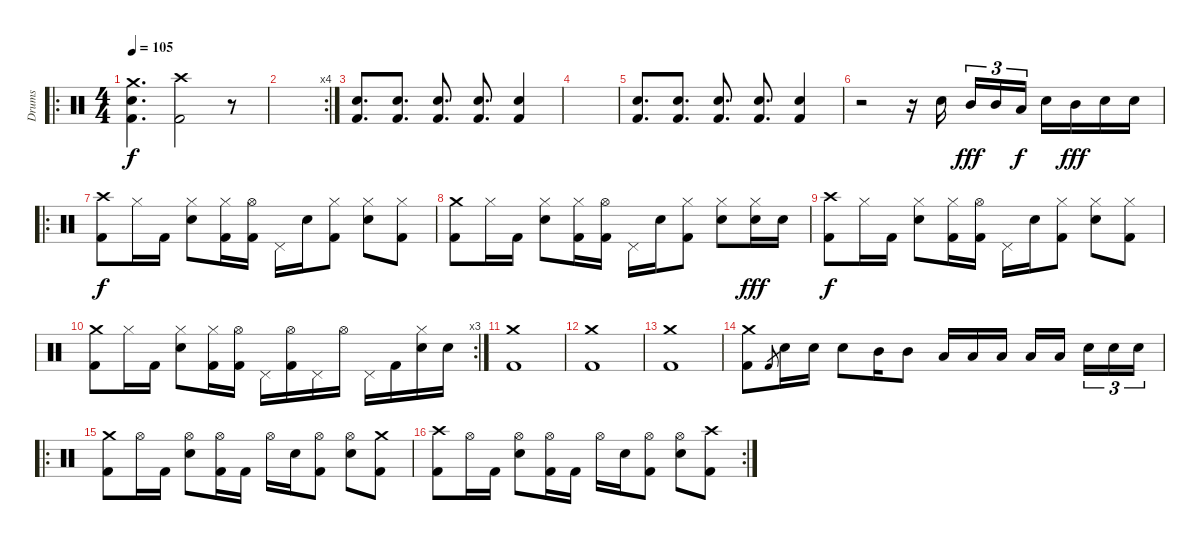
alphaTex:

\track ("Drums" "Drums") {instrument percussion}
\staff {score}
\articulation defaults
\ro
\ts (4 4)
\tempo 105
\clef neutral
\ks c
("Crash medium (hit)" "Electric Snare (hit)" "Kick (hit) 2").4{d dy f} ("Crash high (hit)" "Kick (hit) 2").2 r.8 |
\rc 4
|
("Electric Snare (hit)" "Kick (hit) 2").8{d} ("Electric Snare (hit)" "Kick (hit) 2").8{d} ("Electric Snare (hit)" "Kick (hit) 2").8{d} ("Electric Snare (hit)" "Kick (hit) 2").8{d} ("Electric Snare (hit)" "Kick (hit) 2").4 |
|
("Electric Snare (hit)" "Kick (hit) 2").8{d} ("Electric Snare (hit)" "Kick (hit) 2").8{d} ("Electric Snare (hit)" "Kick (hit) 2").8{d} ("Electric Snare (hit)" "Kick (hit) 2").8{d} ("Electric Snare (hit)" "Kick (hit) 2").4 |
r.2 r.16 "Electric Snare (hit)".16{beam splitsecondary} "Mid Tom (hit)".16{tu (3 2) dy fff} "Mid Tom (hit)".16{tu (3 2)} "Low Tom (hit)".16{tu (3 2) dy f} "Electric Snare (hit)".16 "Mid Tom (hit)".16{dy fff} "Electric Snare (hit)".16 "Electric Snare (hit)".16 |
\ro
("Crash high (hit)" "Kick (hit) 2").8{dy f} "Hi-Hat (closed)".16 "Kick (hit) 2".16 ("Hi-Hat (closed)" "Electric Snare (hit)").8 ("Hi-Hat (closed)" "Kick (hit) 2").16 ("Hi-Hat (open)" "Kick (hit) 2").16 "Pedal Hi-Hat (hit)".16 "Electric Snare (hit)".16 ("Hi-Hat (closed)" "Kick (hit) 2").8 ("Hi-Hat (closed)" "Electric Snare (hit)").8 ("Hi-Hat (closed)" "Kick (hit) 2").8 |
("Crash medium (hit)" "Kick (hit) 2").8 "Hi-Hat (closed)".16 "Kick (hit) 2".16 ("Hi-Hat (closed)" "Electric Snare (hit)").8 ("Hi-Hat (closed)" "Kick (hit) 2").16 ("Hi-Hat (open)" "Kick (hit) 2").16 "Pedal Hi-Hat (hit)".16 "Electric Snare (hit)".16 ("Hi-Hat (closed)" "Kick (hit) 2").8 ("Hi-Hat (closed)" "Electric Snare (hit)").8 ("Hi-Hat (closed)" "Electric Snare (hit)").16{dy fff} "Electric Snare (hit)".16 |
("Crash high (hit)" "Kick (hit) 2").8{dy f} "Hi-Hat (closed)".16 "Kick (hit) 2".16 ("Hi-Hat (closed)" "Electric Snare (hit)").8 ("Hi-Hat (closed)" "Kick (hit) 2").16 ("Hi-Hat (open)" "Kick (hit) 2").16 "Pedal Hi-Hat (hit)".16 "Electric Snare (hit)".16 ("Hi-Hat (closed)" "Kick (hit) 2").8 ("Hi-Hat (closed)" "Electric Snare (hit)").8 ("Hi-Hat (closed)" "Kick (hit) 2").8 |
\rc 3
("Crash medium (hit)" "Kick (hit) 2").8 "Hi-Hat (closed)".16 "Kick (hit) 2".16 ("Hi-Hat (closed)" "Electric Snare (hit)").8 ("Hi-Hat (closed)" "Kick (hit) 2").16 ("Hi-Hat (open)" "Kick (hit) 2").16 "Pedal Hi-Hat (hit)".16 ("Hi-Hat (open)" "Kick (hit) 2").16 "Pedal Hi-Hat (hit)".16 "Hi-Hat (open)".16 "Pedal Hi-Hat (hit)".16 "Kick (hit) 2".16 ("Hi-Hat (closed)" "Electric Snare (hit)").16 "Electric Snare (hit)".16 |
("Crash medium (hit)" "Kick (hit) 2").1 |
("Crash medium (hit)" "Kick (hit) 2").1 |
("Crash medium (hit)" "Kick (hit) 2").1 |
("Crash medium (hit)" "Kick (hit) 2").8 "Kick (hit) 2".8{gr} "Electric Snare (hit)".16 "Electric Snare (hit)".16 "Electric Snare (hit)".8 "Mid Tom (hit)".16 "Mid Tom (hit)".8 "Low Tom (hit)".16 "Low Tom (hit)".16 "Low Tom (hit)".16 "Low Tom (hit)".16 "Low Tom (hit)".16{beam splitsecondary} "Electric Snare (hit)".16{tu (3 2)} "Electric Snare (hit)".16{tu (3 2)} "Electric Snare (hit)".16{tu (3 2)} |
\ro
("Crash medium (hit)" "Kick (hit) 2").8 "Hi-Hat (open)".16 "Kick (hit) 2".16 ("Hi-Hat (open)" "Electric Snare (hit)").8 ("Hi-Hat (open)" "Kick (hit) 2").16 "Kick (hit) 2".16 "Hi-Hat (open)".16 "Electric Snare (hit)".16 ("Hi-Hat (open)" "Kick (hit) 2").8 ("Hi-Hat (open)" "Electric Snare (hit)").8 ("Crash medium (hit)" "Kick (hit) 2").8 |
\rc 2
("Crash high (hit)" "Kick (hit) 2").8 "Hi-Hat (open)".16 "Kick (hit) 2".16 ("Hi-Hat (open)" "Electric Snare (hit)").8 ("Hi-Hat (open)" "Kick (hit) 2").16 "Kick (hit) 2".16 "Hi-Hat (open)".16 "Electric Snare (hit)".16 ("Hi-Hat (open)" "Kick (hit) 2").8 ("Hi-Hat (open)" "Electric Snare (hit)").8 ("Crash high (hit)" "Kick (hit) 2").8
